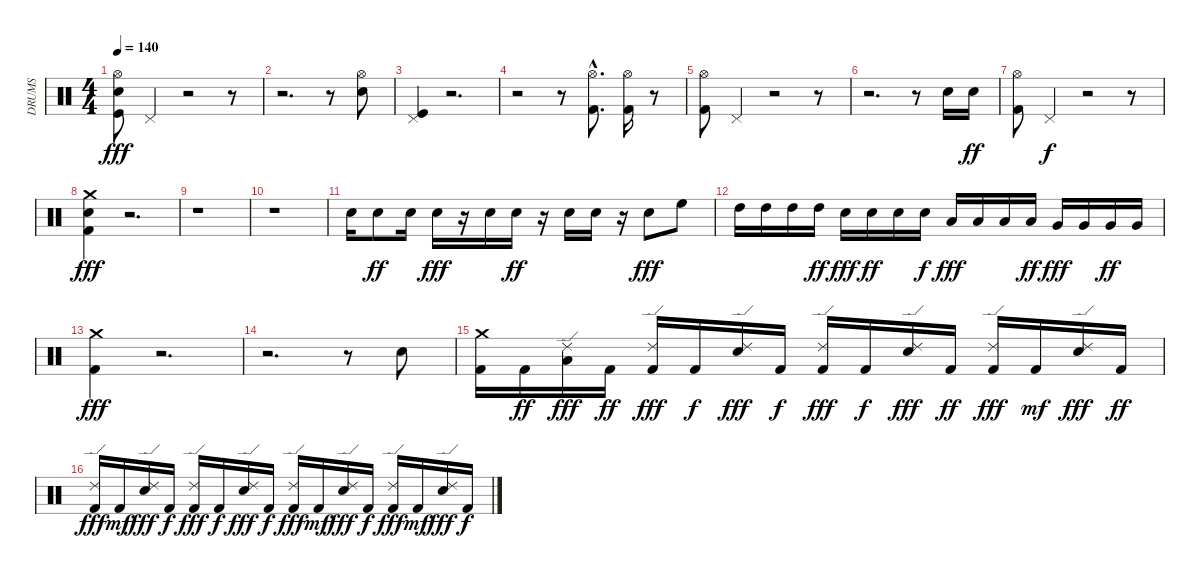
\track ("DRUMS" "DRUMS") {instrument percussion}
\staff {score}
\articulation defaults
\ts (4 4)
\tempo 140
\clef neutral
\ks c
("Hi-Hat (open)" "Electric Snare (hit)" "Kick (hit)").8{dy fff} "Pedal Hi-Hat (hit)".4 r.2 r.8 |
r.2{d} r.8 ("Hi-Hat (open)" "Electric Snare (hit)").8 |
("Pedal Hi-Hat (hit)" "Kick (hit)").4 r.2{d} |
r.2 r.8 ("Hi-Hat (open)"{hac} "Kick (hit) 2"{hac}).8{d} ("Hi-Hat (open)" "Kick (hit) 2").16 r.8 |
("Hi-Hat (open)" "Kick (hit) 2").8 "Pedal Hi-Hat (hit)".4 r.2 r.8 |
r.2{d} r.8 "Electric Snare (hit)".16 "Electric Snare (hit)".16{dy ff} |
("Hi-Hat (open)" "Kick (hit) 2").8 "Pedal Hi-Hat (hit)".4{dy f} r.2 r.8 |
("Crash medium (hit)" "Electric Snare (hit)" "Kick (hit) 2").4{dy fff} r.2{d} |
r.1 |
r.1 |
"Electric Snare (hit)".16 "Electric Snare (hit)".8{dy ff} "Electric Snare (hit)".16 "Electric Snare (hit)".16{dy fff} r.16 "Electric Snare (hit)".16 "Electric Snare (hit)".16{dy ff} r.16 "Electric Snare (hit)".16 "Electric Snare (hit)".16 r.16 "Electric Snare (hit)".8{dy fff} "High Floor Tom (hit)".8 |
"High Tom (hit)".16 "High Tom (hit)".16 "High Tom (hit)".16 "High Tom (hit)".16{dy ff} "Electric Snare (hit)".16{dy fff} "Electric Snare (hit)".16{dy ff} "Electric Snare (hit)".16 "Electric Snare (hit)".16{dy f} "Low Tom (hit)".16{dy fff} "Low Tom (hit)".16 "Low Tom (hit)".16 "Low Tom (hit)".16{dy ff} "Very Low Tom (hit)".16{dy fff} "Very Low Tom (hit)".16 "Very Low Tom (hit)".16{dy ff} "Very Low Tom (hit)".16 |
("Crash medium (hit)" "Kick (hit) 2").4{dy fff} r.2{d} |
r.2{d} r.8 "Electric Snare (hit)".8 |
("Crash medium (hit)" "Kick (hit) 2").16 "Kick (hit) 2".16{dy ff} ("Ride (edge) 2" "Low Floor Tom (hit)").16{dy fff} "Kick (hit) 2".16{dy ff} ("Ride (edge) 2" "Kick (hit) 2").16{dy fff} "Kick (hit) 2".16{dy f} ("Ride (edge) 2" "Electric Snare (hit)").16{dy fff} "Kick (hit) 2".16{dy f} ("Ride (edge) 2" "Kick (hit) 2").16{dy fff} "Kick (hit) 2".16{dy f} ("Ride (edge) 2" "Electric Snare (hit)").16{dy fff} "Kick (hit) 2".16{dy ff} ("Ride (edge) 2" "Kick (hit) 2").16{dy fff} "Kick (hit) 2".16{dy mf} ("Ride (edge) 2" "Electric Snare (hit)").16{dy fff} "Kick (hit) 2".16{dy ff} |
("Ride (edge) 2" "Kick (hit) 2").16{dy fff} "Kick (hit) 2".16{dy mf} ("Ride (edge) 2" "Electric Snare (hit)").16{dy fff} "Kick (hit) 2".16{dy f} ("Ride (edge) 2" "Kick (hit) 2").16{dy fff} "Kick (hit) 2".16{dy f} ("Ride (edge) 2" "Electric Snare (hit)").16{dy fff} "Kick (hit) 2".16{dy f} ("Ride (edge) 2" "Kick (hit) 2").16{dy fff} "Kick (hit) 2".16{dy mf} ("Ride (edge) 2" "Electric Snare (hit)").16{dy fff} "Kick (hit) 2".16{dy f} ("Ride (edge) 2" "Kick (hit) 2").16{dy fff} "Kick (hit) 2".16{dy mf} ("Electric Snare (hit)" "Ride (edge) 2").16{dy fff} "Kick (hit) 2".16{dy f}
